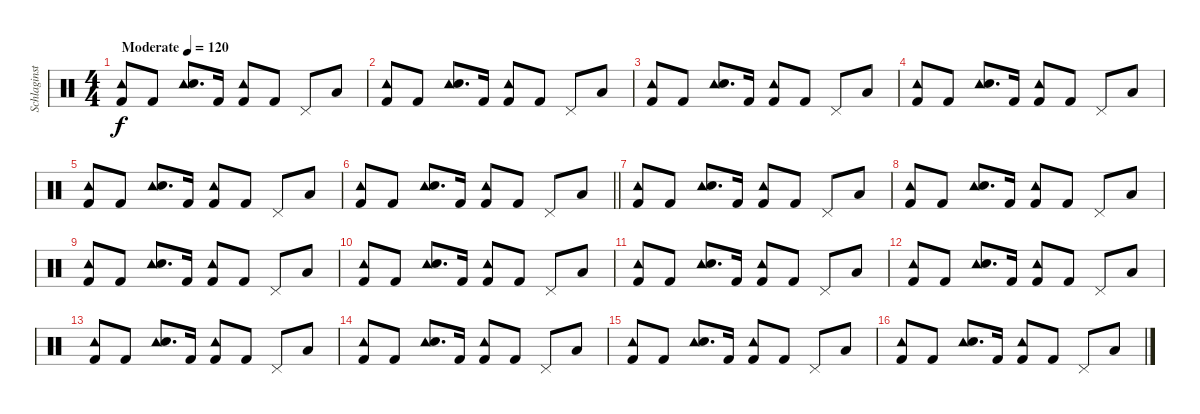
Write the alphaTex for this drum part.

\track ("Schlaginstrumente - Auswahl" "Schlaginst") {instrument percussion}
\staff {score}
\articulation defaults
\ts (4 4)
\tempo (120 "Moderate")
\clef neutral
\ks c
("Tambourine (hit)" "Kick (hit) 2").8{dy f} "Kick (hit) 2".8 ("Tambourine (hit)" "Snare (hit) 2").8{d} "Kick (hit) 2".16 ("Tambourine (hit)" "Kick (hit) 2").8 "Kick (hit) 2".8 "Pedal Hi-Hat (hit)".8 "Low Tom (hit)".8 |
("Tambourine (hit)" "Kick (hit) 2").8 "Kick (hit) 2".8 ("Tambourine (hit)" "Snare (hit) 2").8{d} "Kick (hit) 2".16 ("Tambourine (hit)" "Kick (hit) 2").8 "Kick (hit) 2".8 "Pedal Hi-Hat (hit)".8 "Low Tom (hit)".8 |
("Tambourine (hit)" "Kick (hit) 2").8 "Kick (hit) 2".8 ("Tambourine (hit)" "Snare (hit) 2").8{d} "Kick (hit) 2".16 ("Tambourine (hit)" "Kick (hit) 2").8 "Kick (hit) 2".8 "Pedal Hi-Hat (hit)".8 "Low Tom (hit)".8 |
("Tambourine (hit)" "Kick (hit) 2").8 "Kick (hit) 2".8 ("Tambourine (hit)" "Snare (hit) 2").8{d} "Kick (hit) 2".16 ("Tambourine (hit)" "Kick (hit) 2").8 "Kick (hit) 2".8 "Pedal Hi-Hat (hit)".8 "Low Tom (hit)".8 |
("Tambourine (hit)" "Kick (hit) 2").8 "Kick (hit) 2".8 ("Tambourine (hit)" "Snare (hit) 2").8{d} "Kick (hit) 2".16 ("Tambourine (hit)" "Kick (hit) 2").8 "Kick (hit) 2".8 "Pedal Hi-Hat (hit)".8 "Low Tom (hit)".8 |
\barLineRight lightlight
("Tambourine (hit)" "Kick (hit) 2").8 "Kick (hit) 2".8 ("Tambourine (hit)" "Snare (hit) 2").8{d} "Kick (hit) 2".16 ("Tambourine (hit)" "Kick (hit) 2").8 "Kick (hit) 2".8 "Pedal Hi-Hat (hit)".8 "Low Tom (hit)".8 |
("Tambourine (hit)" "Kick (hit) 2").8 "Kick (hit) 2".8 ("Tambourine (hit)" "Snare (hit) 2").8{d} "Kick (hit) 2".16 ("Tambourine (hit)" "Kick (hit) 2").8 "Kick (hit) 2".8 "Pedal Hi-Hat (hit)".8 "Low Tom (hit)".8 |
("Tambourine (hit)" "Kick (hit) 2").8 "Kick (hit) 2".8 ("Tambourine (hit)" "Snare (hit) 2").8{d} "Kick (hit) 2".16 ("Tambourine (hit)" "Kick (hit) 2").8 "Kick (hit) 2".8 "Pedal Hi-Hat (hit)".8 "Low Tom (hit)".8 |
("Tambourine (hit)" "Kick (hit) 2").8 "Kick (hit) 2".8 ("Tambourine (hit)" "Snare (hit) 2").8{d} "Kick (hit) 2".16 ("Tambourine (hit)" "Kick (hit) 2").8 "Kick (hit) 2".8 "Pedal Hi-Hat (hit)".8 "Low Tom (hit)".8 |
("Tambourine (hit)" "Kick (hit) 2").8 "Kick (hit) 2".8 ("Tambourine (hit)" "Snare (hit) 2").8{d} "Kick (hit) 2".16 ("Tambourine (hit)" "Kick (hit) 2").8 "Kick (hit) 2".8 "Pedal Hi-Hat (hit)".8 "Low Tom (hit)".8 |
("Tambourine (hit)" "Kick (hit) 2").8 "Kick (hit) 2".8 ("Tambourine (hit)" "Snare (hit) 2").8{d} "Kick (hit) 2".16 ("Tambourine (hit)" "Kick (hit) 2").8 "Kick (hit) 2".8 "Pedal Hi-Hat (hit)".8 "Low Tom (hit)".8 |
("Tambourine (hit)" "Kick (hit) 2").8 "Kick (hit) 2".8 ("Tambourine (hit)" "Snare (hit) 2").8{d} "Kick (hit) 2".16 ("Tambourine (hit)" "Kick (hit) 2").8 "Kick (hit) 2".8 "Pedal Hi-Hat (hit)".8 "Low Tom (hit)".8 |
("Tambourine (hit)" "Kick (hit) 2").8 "Kick (hit) 2".8 ("Tambourine (hit)" "Snare (hit) 2").8{d} "Kick (hit) 2".16 ("Tambourine (hit)" "Kick (hit) 2").8 "Kick (hit) 2".8 "Pedal Hi-Hat (hit)".8 "Low Tom (hit)".8 |
("Tambourine (hit)" "Kick (hit) 2").8 "Kick (hit) 2".8 ("Tambourine (hit)" "Snare (hit) 2").8{d} "Kick (hit) 2".16 ("Tambourine (hit)" "Kick (hit) 2").8 "Kick (hit) 2".8 "Pedal Hi-Hat (hit)".8 "Low Tom (hit)".8 |
("Tambourine (hit)" "Kick (hit) 2").8 "Kick (hit) 2".8 ("Tambourine (hit)" "Snare (hit) 2").8{d} "Kick (hit) 2".16 ("Tambourine (hit)" "Kick (hit) 2").8 "Kick (hit) 2".8 "Pedal Hi-Hat (hit)".8 "Low Tom (hit)".8 |
("Tambourine (hit)" "Kick (hit) 2").8 "Kick (hit) 2".8 ("Tambourine (hit)" "Snare (hit) 2").8{d} "Kick (hit) 2".16 ("Tambourine (hit)" "Kick (hit) 2").8 "Kick (hit) 2".8 "Pedal Hi-Hat (hit)".8 "Low Tom (hit)".8
